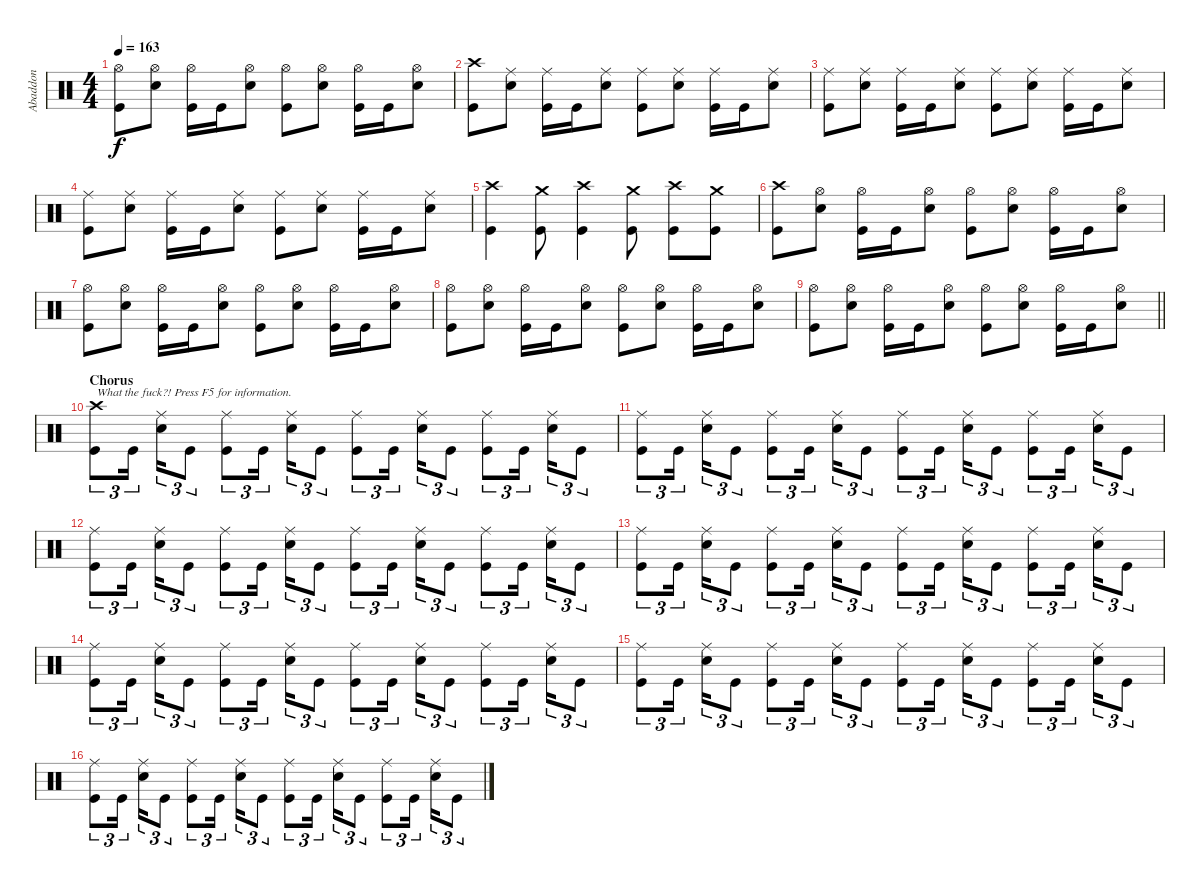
\track ("Abaddon" "Abaddon") {instrument percussion}
\staff {score}
\articulation defaults
\ts (4 4)
\tempo 163
\clef neutral
\ks c
("Hi-Hat (open)" "Kick (hit)").8{dy f} ("Hi-Hat (open)" "Electric Snare (hit)").8 ("Hi-Hat (open)" "Kick (hit)").16 "Kick (hit)".16 ("Hi-Hat (open)" "Electric Snare (hit)").8 ("Hi-Hat (open)" "Kick (hit)").8 ("Hi-Hat (open)" "Electric Snare (hit)").8 ("Hi-Hat (open)" "Kick (hit)").16 "Kick (hit)".16 ("Hi-Hat (open)" "Electric Snare (hit)").8 |
("Crash high (hit)" "Kick (hit)").8 ("Ride (middle)" "Electric Snare (hit)").8 ("Ride (middle)" "Kick (hit)").16 "Kick (hit)".16 ("Ride (middle)" "Electric Snare (hit)").8 ("Ride (middle)" "Kick (hit)").8 ("Ride (middle)" "Electric Snare (hit)").8 ("Ride (middle)" "Kick (hit)").16 "Kick (hit)".16 ("Ride (middle)" "Electric Snare (hit)").8 |
("Ride (middle)" "Kick (hit)").8 ("Ride (middle)" "Electric Snare (hit)").8 ("Ride (middle)" "Kick (hit)").16 "Kick (hit)".16 ("Ride (middle)" "Electric Snare (hit)").8 ("Ride (middle)" "Kick (hit)").8 ("Ride (middle)" "Electric Snare (hit)").8 ("Ride (middle)" "Kick (hit)").16 "Kick (hit)".16 ("Ride (middle)" "Electric Snare (hit)").8 |
("Ride (middle)" "Kick (hit)").8 ("Ride (middle)" "Electric Snare (hit)").8 ("Ride (middle)" "Kick (hit)").16 "Kick (hit)".16 ("Ride (middle)" "Electric Snare (hit)").8 ("Ride (middle)" "Kick (hit)").8 ("Ride (middle)" "Electric Snare (hit)").8 ("Ride (middle)" "Kick (hit)").16 "Kick (hit)".16 ("Ride (middle)" "Electric Snare (hit)").8 |
("Crash high (hit)" "Kick (hit)").4 ("Crash medium (hit)" "Kick (hit)").8 ("Crash high (hit)" "Kick (hit)").4 ("Crash medium (hit)" "Kick (hit)").8 ("Crash high (hit)" "Kick (hit)").8 ("Crash medium (hit)" "Kick (hit)").8 |
("Crash high (hit)" "Kick (hit)").8 ("Hi-Hat (open)" "Electric Snare (hit)").8 ("Hi-Hat (open)" "Kick (hit)").16 "Kick (hit)".16 ("Hi-Hat (open)" "Electric Snare (hit)").8 ("Hi-Hat (open)" "Kick (hit)").8 ("Hi-Hat (open)" "Electric Snare (hit)").8 ("Hi-Hat (open)" "Kick (hit)").16 "Kick (hit)".16 ("Hi-Hat (open)" "Electric Snare (hit)").8 |
("Hi-Hat (open)" "Kick (hit)").8 ("Hi-Hat (open)" "Electric Snare (hit)").8 ("Hi-Hat (open)" "Kick (hit)").16 "Kick (hit)".16 ("Hi-Hat (open)" "Electric Snare (hit)").8 ("Hi-Hat (open)" "Kick (hit)").8 ("Hi-Hat (open)" "Electric Snare (hit)").8 ("Hi-Hat (open)" "Kick (hit)").16 "Kick (hit)".16 ("Hi-Hat (open)" "Electric Snare (hit)").8 |
("Hi-Hat (open)" "Kick (hit)").8 ("Hi-Hat (open)" "Electric Snare (hit)").8 ("Hi-Hat (open)" "Kick (hit)").16 "Kick (hit)".16 ("Hi-Hat (open)" "Electric Snare (hit)").8 ("Hi-Hat (open)" "Kick (hit)").8 ("Hi-Hat (open)" "Electric Snare (hit)").8 ("Hi-Hat (open)" "Kick (hit)").16 "Kick (hit)".16 ("Hi-Hat (open)" "Electric Snare (hit)").8 |
\barLineRight lightlight
("Hi-Hat (open)" "Kick (hit)").8 ("Hi-Hat (open)" "Electric Snare (hit)").8 ("Hi-Hat (open)" "Kick (hit)").16 "Kick (hit)".16 ("Hi-Hat (open)" "Electric Snare (hit)").8 ("Hi-Hat (open)" "Kick (hit)").8 ("Hi-Hat (open)" "Electric Snare (hit)").8 ("Hi-Hat (open)" "Kick (hit)").16 "Kick (hit)".16 ("Hi-Hat (open)" "Electric Snare (hit)").8 |
\section ("" "Chorus")
("Crash high (hit)" "Kick (hit)").8{tu (3 2) txt "What the fuck?! Press F5 for information."} "Kick (hit)".16{tu (3 2) beam splitsecondary} ("Ride (middle)" "Electric Snare (hit)").16{tu (3 2)} "Kick (hit)".8{tu (3 2)} ("Ride (middle)" "Kick (hit)").8{tu (3 2)} "Kick (hit)".16{tu (3 2) beam splitsecondary} ("Ride (middle)" "Electric Snare (hit)").16{tu (3 2)} "Kick (hit)".8{tu (3 2)} ("Ride (middle)" "Kick (hit)").8{tu (3 2)} "Kick (hit)".16{tu (3 2) beam splitsecondary} ("Ride (middle)" "Electric Snare (hit)").16{tu (3 2)} "Kick (hit)".8{tu (3 2)} ("Ride (middle)" "Kick (hit)").8{tu (3 2)} "Kick (hit)".16{tu (3 2) beam splitsecondary} ("Ride (middle)" "Electric Snare (hit)").16{tu (3 2)} "Kick (hit)".8{tu (3 2)} |
("Ride (middle)" "Kick (hit)").8{tu (3 2)} "Kick (hit)".16{tu (3 2) beam splitsecondary} ("Ride (middle)" "Electric Snare (hit)").16{tu (3 2)} "Kick (hit)".8{tu (3 2)} ("Ride (middle)" "Kick (hit)").8{tu (3 2)} "Kick (hit)".16{tu (3 2) beam splitsecondary} ("Ride (middle)" "Electric Snare (hit)").16{tu (3 2)} "Kick (hit)".8{tu (3 2)} ("Ride (middle)" "Kick (hit)").8{tu (3 2)} "Kick (hit)".16{tu (3 2) beam splitsecondary} ("Ride (middle)" "Electric Snare (hit)").16{tu (3 2)} "Kick (hit)".8{tu (3 2)} ("Ride (middle)" "Kick (hit)").8{tu (3 2)} "Kick (hit)".16{tu (3 2) beam splitsecondary} ("Ride (middle)" "Electric Snare (hit)").16{tu (3 2)} "Kick (hit)".8{tu (3 2)} |
("Ride (middle)" "Kick (hit)").8{tu (3 2)} "Kick (hit)".16{tu (3 2) beam splitsecondary} ("Ride (middle)" "Electric Snare (hit)").16{tu (3 2)} "Kick (hit)".8{tu (3 2)} ("Ride (middle)" "Kick (hit)").8{tu (3 2)} "Kick (hit)".16{tu (3 2) beam splitsecondary} ("Ride (middle)" "Electric Snare (hit)").16{tu (3 2)} "Kick (hit)".8{tu (3 2)} ("Ride (middle)" "Kick (hit)").8{tu (3 2)} "Kick (hit)".16{tu (3 2) beam splitsecondary} ("Ride (middle)" "Electric Snare (hit)").16{tu (3 2)} "Kick (hit)".8{tu (3 2)} ("Ride (middle)" "Kick (hit)").8{tu (3 2)} "Kick (hit)".16{tu (3 2) beam splitsecondary} ("Ride (middle)" "Electric Snare (hit)").16{tu (3 2)} "Kick (hit)".8{tu (3 2)} |
("Ride (middle)" "Kick (hit)").8{tu (3 2)} "Kick (hit)".16{tu (3 2) beam splitsecondary} ("Ride (middle)" "Electric Snare (hit)").16{tu (3 2)} "Kick (hit)".8{tu (3 2)} ("Ride (middle)" "Kick (hit)").8{tu (3 2)} "Kick (hit)".16{tu (3 2) beam splitsecondary} ("Ride (middle)" "Electric Snare (hit)").16{tu (3 2)} "Kick (hit)".8{tu (3 2)} ("Ride (middle)" "Kick (hit)").8{tu (3 2)} "Kick (hit)".16{tu (3 2) beam splitsecondary} ("Ride (middle)" "Electric Snare (hit)").16{tu (3 2)} "Kick (hit)".8{tu (3 2)} ("Ride (middle)" "Kick (hit)").8{tu (3 2)} "Kick (hit)".16{tu (3 2) beam splitsecondary} ("Ride (middle)" "Electric Snare (hit)").16{tu (3 2)} "Kick (hit)".8{tu (3 2)} |
("Ride (middle)" "Kick (hit)").8{tu (3 2)} "Kick (hit)".16{tu (3 2) beam splitsecondary} ("Ride (middle)" "Electric Snare (hit)").16{tu (3 2)} "Kick (hit)".8{tu (3 2)} ("Ride (middle)" "Kick (hit)").8{tu (3 2)} "Kick (hit)".16{tu (3 2) beam splitsecondary} ("Ride (middle)" "Electric Snare (hit)").16{tu (3 2)} "Kick (hit)".8{tu (3 2)} ("Ride (middle)" "Kick (hit)").8{tu (3 2)} "Kick (hit)".16{tu (3 2) beam splitsecondary} ("Ride (middle)" "Electric Snare (hit)").16{tu (3 2)} "Kick (hit)".8{tu (3 2)} ("Ride (middle)" "Kick (hit)").8{tu (3 2)} "Kick (hit)".16{tu (3 2) beam splitsecondary} ("Ride (middle)" "Electric Snare (hit)").16{tu (3 2)} "Kick (hit)".8{tu (3 2)} |
("Ride (middle)" "Kick (hit)").8{tu (3 2)} "Kick (hit)".16{tu (3 2) beam splitsecondary} ("Ride (middle)" "Electric Snare (hit)").16{tu (3 2)} "Kick (hit)".8{tu (3 2)} ("Ride (middle)" "Kick (hit)").8{tu (3 2)} "Kick (hit)".16{tu (3 2) beam splitsecondary} ("Ride (middle)" "Electric Snare (hit)").16{tu (3 2)} "Kick (hit)".8{tu (3 2)} ("Ride (middle)" "Kick (hit)").8{tu (3 2)} "Kick (hit)".16{tu (3 2) beam splitsecondary} ("Ride (middle)" "Electric Snare (hit)").16{tu (3 2)} "Kick (hit)".8{tu (3 2)} ("Ride (middle)" "Kick (hit)").8{tu (3 2)} "Kick (hit)".16{tu (3 2) beam splitsecondary} ("Ride (middle)" "Electric Snare (hit)").16{tu (3 2)} "Kick (hit)".8{tu (3 2)} |
("Ride (middle)" "Kick (hit)").8{tu (3 2)} "Kick (hit)".16{tu (3 2) beam splitsecondary} ("Ride (middle)" "Electric Snare (hit)").16{tu (3 2)} "Kick (hit)".8{tu (3 2)} ("Ride (middle)" "Kick (hit)").8{tu (3 2)} "Kick (hit)".16{tu (3 2) beam splitsecondary} ("Ride (middle)" "Electric Snare (hit)").16{tu (3 2)} "Kick (hit)".8{tu (3 2)} ("Ride (middle)" "Kick (hit)").8{tu (3 2)} "Kick (hit)".16{tu (3 2) beam splitsecondary} ("Ride (middle)" "Electric Snare (hit)").16{tu (3 2)} "Kick (hit)".8{tu (3 2)} ("Ride (middle)" "Kick (hit)").8{tu (3 2)} "Kick (hit)".16{tu (3 2) beam splitsecondary} ("Ride (middle)" "Electric Snare (hit)").16{tu (3 2)} "Kick (hit)".8{tu (3 2)}
